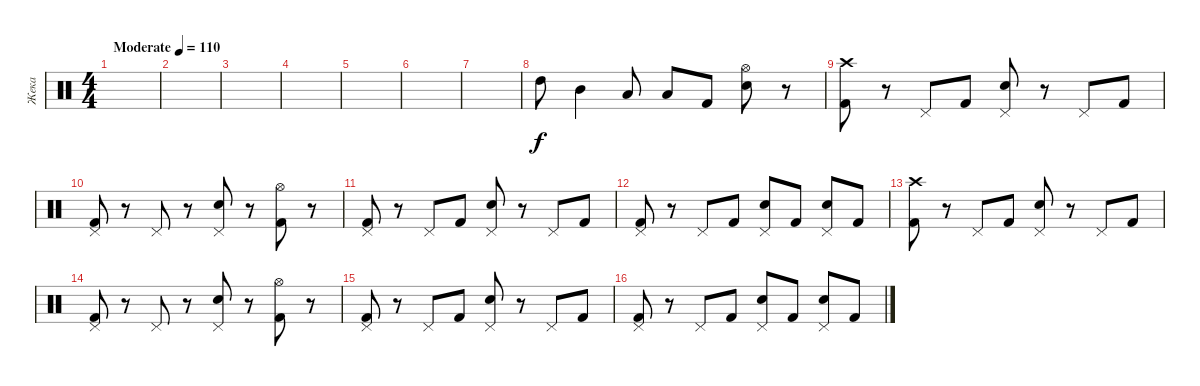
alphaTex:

\track ("Жека" "Жека") {instrument percussion}
\staff {score}
\articulation defaults
\ts (4 4)
\tempo (110 "Moderate")
\clef neutral
\ks c
|
|
|
|
|
|
|
"High Tom (hit)".8 "Mid Tom (hit)".4 "Low Tom (hit)".8 "Low Floor Tom (hit)".8 "Kick (hit) 2".8 ("Snare (hit) 2" "Hi-Hat (open)").8 r.8 |
("Crash high (hit)" "Kick (hit) 2").8 r.8 "Pedal Hi-Hat (hit)".8 "Kick (hit) 2".8 ("Pedal Hi-Hat (hit)" "Snare (hit) 2").8 r.8 "Pedal Hi-Hat (hit)".8 "Kick (hit) 2".8 |
("Pedal Hi-Hat (hit)" "Kick (hit) 2").8 r.8 "Pedal Hi-Hat (hit)".8 r.8 ("Pedal Hi-Hat (hit)" "Snare (hit) 2").8 r.8 ("Hi-Hat (open)" "Kick (hit) 2").8 r.8 |
("Pedal Hi-Hat (hit)" "Kick (hit) 2").8 r.8 "Pedal Hi-Hat (hit)".8 "Kick (hit) 2".8 ("Pedal Hi-Hat (hit)" "Snare (hit) 2").8 r.8 "Pedal Hi-Hat (hit)".8 "Kick (hit) 2".8 |
("Pedal Hi-Hat (hit)" "Kick (hit) 2").8 r.8 "Pedal Hi-Hat (hit)".8 "Kick (hit) 2".8 ("Pedal Hi-Hat (hit)" "Snare (hit) 2").8 "Kick (hit) 2".8 ("Pedal Hi-Hat (hit)" "Snare (hit) 2").8 "Kick (hit) 2".8 |
("Crash high (hit)" "Kick (hit) 2").8 r.8 "Pedal Hi-Hat (hit)".8 "Kick (hit) 2".8 ("Pedal Hi-Hat (hit)" "Snare (hit) 2").8 r.8 "Pedal Hi-Hat (hit)".8 "Kick (hit) 2".8 |
("Pedal Hi-Hat (hit)" "Kick (hit) 2").8 r.8 "Pedal Hi-Hat (hit)".8 r.8 ("Pedal Hi-Hat (hit)" "Snare (hit) 2").8 r.8 ("Hi-Hat (open)" "Kick (hit) 2").8 r.8 |
("Pedal Hi-Hat (hit)" "Kick (hit) 2").8 r.8 "Pedal Hi-Hat (hit)".8 "Kick (hit) 2".8 ("Pedal Hi-Hat (hit)" "Snare (hit) 2").8 r.8 "Pedal Hi-Hat (hit)".8 "Kick (hit) 2".8 |
("Pedal Hi-Hat (hit)" "Kick (hit) 2").8 r.8 "Pedal Hi-Hat (hit)".8 "Kick (hit) 2".8 ("Pedal Hi-Hat (hit)" "Snare (hit) 2").8 "Kick (hit) 2".8 ("Pedal Hi-Hat (hit)" "Snare (hit) 2").8 "Kick (hit) 2".8
